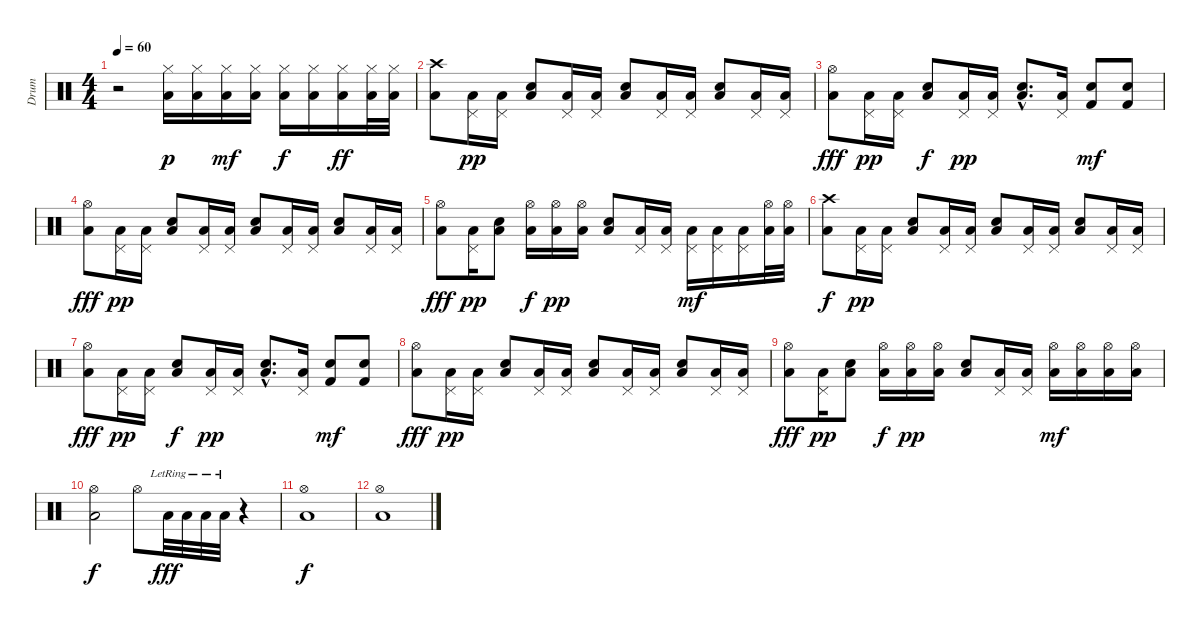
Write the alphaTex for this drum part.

\track ("Drum" "Drum") {instrument percussion}
\staff {score}
\articulation defaults
\ts (4 4)
\tempo 60
\clef neutral
\ks c
r.2{dy f} ("Hi-Hat (closed)" "Low Tom (hit)").16{dy p} ("Hi-Hat (closed)" "Low Tom (hit)").16 ("Hi-Hat (closed)" "Low Tom (hit)").16{dy mf} ("Hi-Hat (closed)" "Low Tom (hit)").16 ("Hi-Hat (closed)" "Low Tom (hit)").16{dy f} ("Hi-Hat (closed)" "Low Tom (hit)").16 ("Hi-Hat (closed)" "Low Tom (hit)").16{dy ff} ("Hi-Hat (closed)" "Low Tom (hit)").32 ("Hi-Hat (closed)" "Low Tom (hit)").32 |
("Crash high (hit)" "Low Tom (hit)").8 ("Pedal Hi-Hat (hit)" "Low Tom (hit)").16{dy pp} ("Pedal Hi-Hat (hit)" "Low Tom (hit)").16 ("Electric Snare (hit)" "Low Tom (hit)").8 ("Pedal Hi-Hat (hit)" "Low Tom (hit)").16 ("Pedal Hi-Hat (hit)" "Low Tom (hit)").16 ("Electric Snare (hit)" "Low Tom (hit)").8 ("Pedal Hi-Hat (hit)" "Low Tom (hit)").16 ("Pedal Hi-Hat (hit)" "Low Tom (hit)").16 ("Electric Snare (hit)" "Low Tom (hit)").8 ("Pedal Hi-Hat (hit)" "Low Tom (hit)").16 ("Pedal Hi-Hat (hit)" "Low Tom (hit)").16 |
("Hi-Hat (open)" "Low Tom (hit)").8{dy fff} ("Pedal Hi-Hat (hit)" "Low Tom (hit)").16{dy pp} ("Pedal Hi-Hat (hit)" "Low Tom (hit)").16 ("Electric Snare (hit)" "Low Tom (hit)").8{dy f} ("Pedal Hi-Hat (hit)" "Low Tom (hit)").16{dy pp} ("Pedal Hi-Hat (hit)" "Low Tom (hit)").16 ("Electric Snare (hit)"{hac} "Low Tom (hit)"{hac}).8{d} ("Pedal Hi-Hat (hit)" "Low Tom (hit)").16 ("Electric Snare (hit)" "Kick (hit) 2").8{dy mf} ("Electric Snare (hit)" "Kick (hit) 2").8 |
("Hi-Hat (open)" "Low Tom (hit)").8{dy fff} ("Pedal Hi-Hat (hit)" "Low Tom (hit)").16{dy pp} ("Pedal Hi-Hat (hit)" "Low Tom (hit)").16 ("Electric Snare (hit)" "Low Tom (hit)").8 ("Pedal Hi-Hat (hit)" "Low Tom (hit)").16 ("Pedal Hi-Hat (hit)" "Low Tom (hit)").16 ("Electric Snare (hit)" "Low Tom (hit)").8 ("Pedal Hi-Hat (hit)" "Low Tom (hit)").16 ("Pedal Hi-Hat (hit)" "Low Tom (hit)").16 ("Electric Snare (hit)" "Low Tom (hit)").8 ("Pedal Hi-Hat (hit)" "Low Tom (hit)").16 ("Pedal Hi-Hat (hit)" "Low Tom (hit)").16 |
("Hi-Hat (open)" "Low Tom (hit)").8{dy fff} ("Pedal Hi-Hat (hit)" "Low Tom (hit)").16{dy pp} ("Electric Snare (hit)" "Low Tom (hit)").8 ("Hi-Hat (open)" "Low Tom (hit)").16{dy f} ("Hi-Hat (open)" "Low Tom (hit)").16{dy pp} ("Hi-Hat (open)" "Low Tom (hit)").16 ("Electric Snare (hit)" "Low Tom (hit)").8 ("Pedal Hi-Hat (hit)" "Low Tom (hit)").16 ("Pedal Hi-Hat (hit)" "Low Tom (hit)").16 ("Pedal Hi-Hat (hit)" "Low Tom (hit)").16{dy mf} ("Pedal Hi-Hat (hit)" "Low Tom (hit)").16 ("Pedal Hi-Hat (hit)" "Low Tom (hit)").16 ("Hi-Hat (open)" "Low Tom (hit)").32 ("Hi-Hat (open)" "Low Tom (hit)").32 |
("Crash high (hit)" "Low Tom (hit)").8{dy f} ("Pedal Hi-Hat (hit)" "Low Tom (hit)").16{dy pp} ("Pedal Hi-Hat (hit)" "Low Tom (hit)").16 ("Electric Snare (hit)" "Low Tom (hit)").8 ("Pedal Hi-Hat (hit)" "Low Tom (hit)").16 ("Pedal Hi-Hat (hit)" "Low Tom (hit)").16 ("Electric Snare (hit)" "Low Tom (hit)").8 ("Pedal Hi-Hat (hit)" "Low Tom (hit)").16 ("Pedal Hi-Hat (hit)" "Low Tom (hit)").16 ("Electric Snare (hit)" "Low Tom (hit)").8 ("Pedal Hi-Hat (hit)" "Low Tom (hit)").16 ("Pedal Hi-Hat (hit)" "Low Tom (hit)").16 |
("Hi-Hat (open)" "Low Tom (hit)").8{dy fff} ("Pedal Hi-Hat (hit)" "Low Tom (hit)").16{dy pp} ("Pedal Hi-Hat (hit)" "Low Tom (hit)").16 ("Electric Snare (hit)" "Low Tom (hit)").8{dy f} ("Pedal Hi-Hat (hit)" "Low Tom (hit)").16{dy pp} ("Pedal Hi-Hat (hit)" "Low Tom (hit)").16 ("Electric Snare (hit)"{hac} "Low Tom (hit)"{hac}).8{d} ("Pedal Hi-Hat (hit)" "Low Tom (hit)").16 ("Electric Snare (hit)" "Kick (hit) 2").8{dy mf} ("Electric Snare (hit)" "Kick (hit) 2").8 |
("Hi-Hat (open)" "Low Tom (hit)").8{dy fff} ("Pedal Hi-Hat (hit)" "Low Tom (hit)").16{dy pp} ("Pedal Hi-Hat (hit)" "Low Tom (hit)").16 ("Electric Snare (hit)" "Low Tom (hit)").8 ("Pedal Hi-Hat (hit)" "Low Tom (hit)").16 ("Pedal Hi-Hat (hit)" "Low Tom (hit)").16 ("Electric Snare (hit)" "Low Tom (hit)").8 ("Pedal Hi-Hat (hit)" "Low Tom (hit)").16 ("Pedal Hi-Hat (hit)" "Low Tom (hit)").16 ("Electric Snare (hit)" "Low Tom (hit)").8 ("Pedal Hi-Hat (hit)" "Low Tom (hit)").16 ("Pedal Hi-Hat (hit)" "Low Tom (hit)").16 |
("Hi-Hat (open)" "Low Tom (hit)").8{dy fff} ("Pedal Hi-Hat (hit)" "Low Tom (hit)").16{dy pp} ("Electric Snare (hit)" "Low Tom (hit)").8 ("Hi-Hat (open)" "Low Tom (hit)").16{dy f} ("Hi-Hat (open)" "Low Tom (hit)").16{dy pp} ("Hi-Hat (open)" "Low Tom (hit)").16 ("Electric Snare (hit)" "Low Tom (hit)").8 ("Pedal Hi-Hat (hit)" "Low Tom (hit)").16 ("Pedal Hi-Hat (hit)" "Low Tom (hit)").16 ("Hi-Hat (open)" "Low Tom (hit)").16{dy mf} ("Hi-Hat (open)" "Low Tom (hit)").16 ("Hi-Hat (open)" "Low Tom (hit)").16 ("Hi-Hat (open)" "Low Tom (hit)").16 |
("Hi-Hat (open)" "Low Tom (hit)").2{dy f} "Hi-Hat (open)".8 "Low Tom (hit)"{lr}.32{dy fff} "Low Tom (hit)"{lr}.32 "Low Tom (hit)"{lr}.32 "Low Tom (hit)"{lr}.32 r.4 |
("Hi-Hat (open)" "Low Tom (hit)").1{dy f} |
("Hi-Hat (open)" "Low Tom (hit)").1
